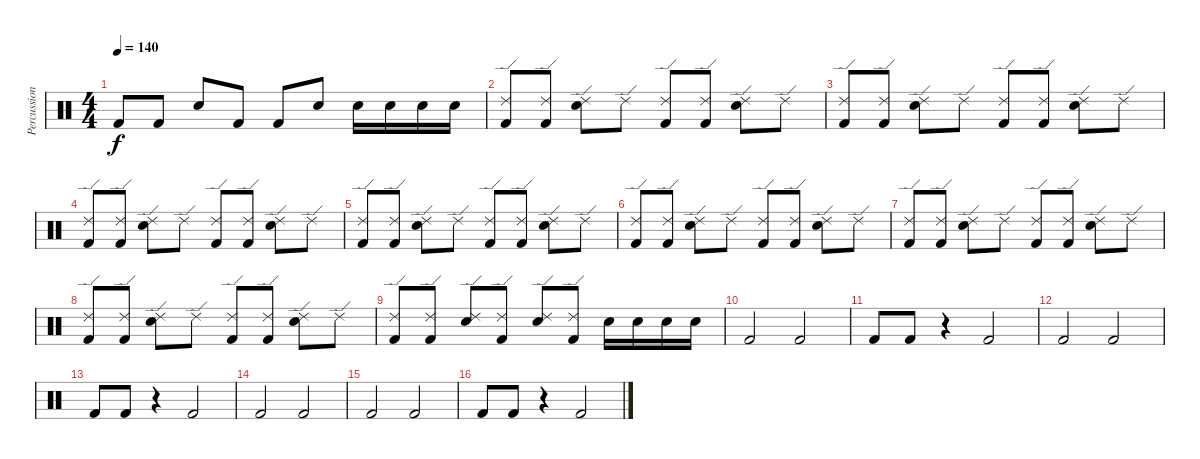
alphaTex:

\track ("Percussion" "Percussion") {instrument percussion}
\staff {score}
\articulation defaults
\ts (4 4)
\tempo 140
\clef neutral
\ks c "Kick (hit) 2".8{dy f} "Kick (hit) 2".8 "Snare (hit) 2".8 "Kick (hit) 2".8 "Kick (hit) 2".8 "Snare (hit) 2".8 "Snare (hit) 2".16 "Snare (hit) 2".16 "Snare (hit) 2".16 "Snare (hit) 2".16
|
("Kick (hit) 2" "Ride (edge) 2").8 ("Kick (hit) 2" "Ride (edge) 2").8 ("Snare (hit) 2" "Ride (edge) 2").8 "Ride (edge) 2".8 ("Kick (hit) 2" "Ride (edge) 2").8 ("Kick (hit) 2" "Ride (edge) 2").8 ("Snare (hit) 2" "Ride (edge) 2").8 "Ride (edge) 2".8 |
("Kick (hit) 2" "Ride (edge) 2").8 ("Kick (hit) 2" "Ride (edge) 2").8 ("Snare (hit) 2" "Ride (edge) 2").8 "Ride (edge) 2".8 ("Kick (hit) 2" "Ride (edge) 2").8 ("Kick (hit) 2" "Ride (edge) 2").8 ("Snare (hit) 2" "Ride (edge) 2").8 "Ride (edge) 2".8 |
("Kick (hit) 2" "Ride (edge) 2").8 ("Kick (hit) 2" "Ride (edge) 2").8 ("Snare (hit) 2" "Ride (edge) 2").8 "Ride (edge) 2".8 ("Kick (hit) 2" "Ride (edge) 2").8 ("Kick (hit) 2" "Ride (edge) 2").8 ("Snare (hit) 2" "Ride (edge) 2").8 "Ride (edge) 2".8 |
("Kick (hit) 2" "Ride (edge) 2").8 ("Kick (hit) 2" "Ride (edge) 2").8 ("Snare (hit) 2" "Ride (edge) 2").8 "Ride (edge) 2".8 ("Kick (hit) 2" "Ride (edge) 2").8 ("Kick (hit) 2" "Ride (edge) 2").8 ("Snare (hit) 2" "Ride (edge) 2").8 "Ride (edge) 2".8 |
("Kick (hit) 2" "Ride (edge) 2").8 ("Kick (hit) 2" "Ride (edge) 2").8 ("Snare (hit) 2" "Ride (edge) 2").8 "Ride (edge) 2".8 ("Kick (hit) 2" "Ride (edge) 2").8 ("Kick (hit) 2" "Ride (edge) 2").8 ("Snare (hit) 2" "Ride (edge) 2").8 "Ride (edge) 2".8 |
("Kick (hit) 2" "Ride (edge) 2").8 ("Kick (hit) 2" "Ride (edge) 2").8 ("Snare (hit) 2" "Ride (edge) 2").8 "Ride (edge) 2".8 ("Kick (hit) 2" "Ride (edge) 2").8 ("Kick (hit) 2" "Ride (edge) 2").8 ("Snare (hit) 2" "Ride (edge) 2").8 "Ride (edge) 2".8 |
("Kick (hit) 2" "Ride (edge) 2").8 ("Kick (hit) 2" "Ride (edge) 2").8 ("Snare (hit) 2" "Ride (edge) 2").8 "Ride (edge) 2".8 ("Kick (hit) 2" "Ride (edge) 2").8 ("Kick (hit) 2" "Ride (edge) 2").8 ("Snare (hit) 2" "Ride (edge) 2").8 "Ride (edge) 2".8 |
("Kick (hit) 2" "Ride (edge) 2").8 ("Kick (hit) 2" "Ride (edge) 2").8 ("Snare (hit) 2" "Ride (edge) 2").8 ("Kick (hit) 2" "Ride (edge) 2").8 ("Snare (hit) 2" "Ride (edge) 2").8 ("Kick (hit) 2" "Ride (edge) 2").8 "Snare (hit) 2".16 "Snare (hit) 2".16 "Snare (hit) 2".16 "Snare (hit) 2".16 |
"Kick (hit) 2".2 "Kick (hit) 2".2 |
"Kick (hit) 2".8 "Kick (hit) 2".8 r.4 "Kick (hit) 2".2 |
"Kick (hit) 2".2 "Kick (hit) 2".2 |
"Kick (hit) 2".8 "Kick (hit) 2".8 r.4 "Kick (hit) 2".2 |
"Kick (hit) 2".2 "Kick (hit) 2".2 |
"Kick (hit) 2".2 "Kick (hit) 2".2 |
"Kick (hit) 2".8 "Kick (hit) 2".8 r.4 "Kick (hit) 2".2
